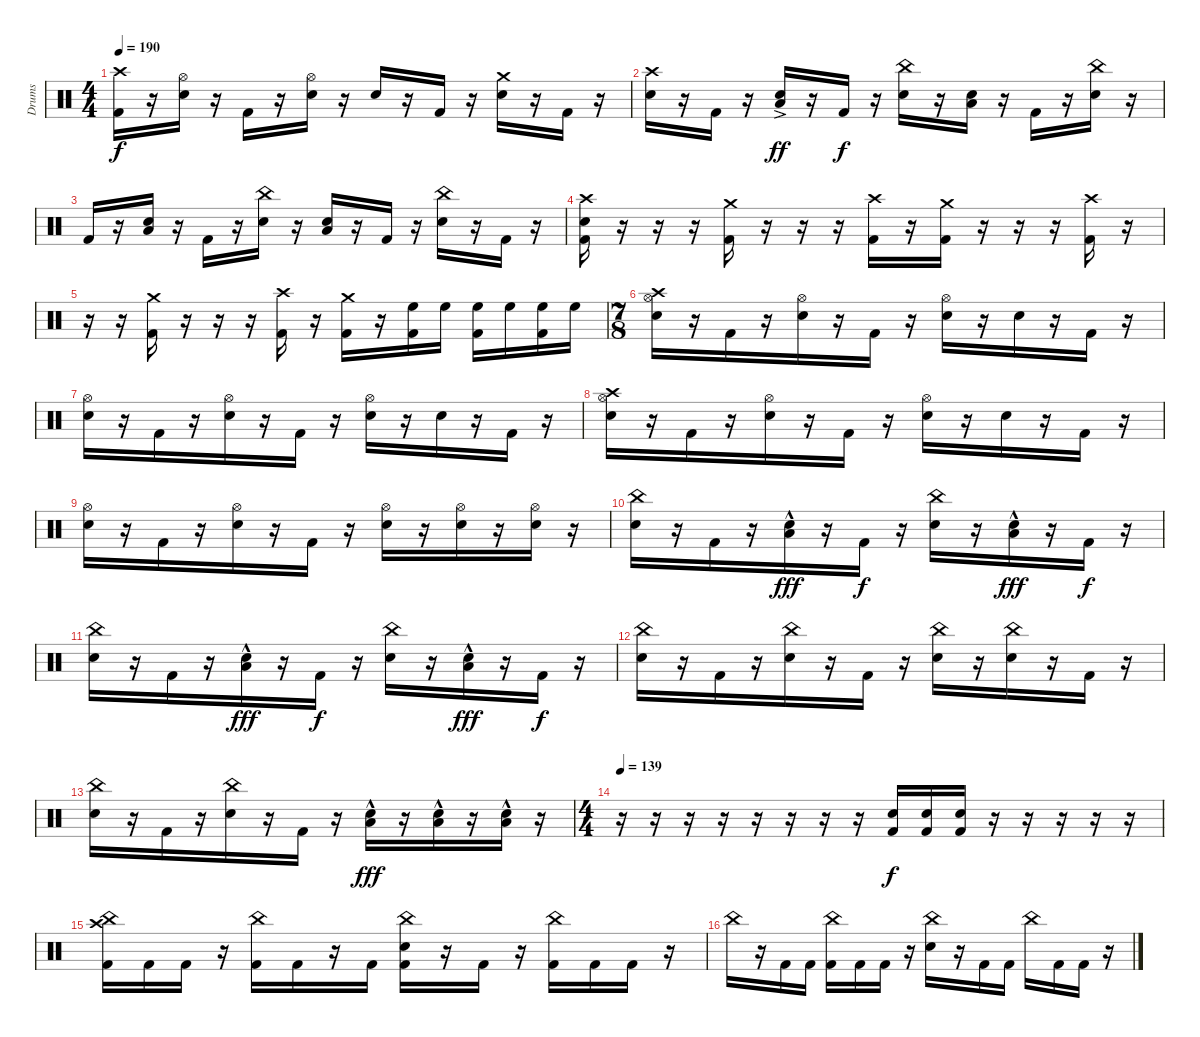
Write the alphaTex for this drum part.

\track ("Drums" "Drums") {instrument percussion}
\staff {score}
\articulation defaults
\ts (4 4)
\tempo 190
\clef neutral
\ks c
("Crash high (hit)" "Kick (hit) 2").16{dy f} r.16 ("Hi-Hat (open)" "Electric Snare (hit)").16 r.16 "Kick (hit) 2".16 r.16 ("Hi-Hat (open)" "Electric Snare (hit)").16 r.16 "Electric Snare (hit)".16 r.16 "Kick (hit) 2".16 r.16 ("Crash medium (hit)" "Electric Snare (hit)").16 r.16 "Kick (hit) 2".16 r.16 |
("Crash high (hit)" "Electric Snare (hit)").16 r.16 "Kick (hit) 2".16 r.16 ("Electric Snare (hit)" "Low Floor Tom (hit)"{ac}).16{dy ff} r.16 "Kick (hit) 2".16{dy f} r.16 ("China (hit)" "Electric Snare (hit)").16 r.16 ("Electric Snare (hit)" "Low Floor Tom (hit)").16 r.16 "Kick (hit) 2".16 r.16 ("China (hit)" "Electric Snare (hit)").16 r.16 |
"Kick (hit) 2".16 r.16 ("Electric Snare (hit)" "Low Floor Tom (hit)").16 r.16 "Kick (hit) 2".16 r.16 ("China (hit)" "Electric Snare (hit)").16 r.16 ("Electric Snare (hit)" "Low Floor Tom (hit)").16 r.16 "Kick (hit) 2".16 r.16 ("China (hit)" "Electric Snare (hit)").16 r.16 "Kick (hit) 2".16 r.16 |
("Crash high (hit)" "Electric Snare (hit)" "Kick (hit) 2").16 r.16 r.16 r.16 ("Crash medium (hit)" "Kick (hit) 2").16 r.16 r.16 r.16 ("Crash high (hit)" "Kick (hit) 2").16 r.16 ("Crash medium (hit)" "Kick (hit) 2").16 r.16 r.16 r.16 ("Crash high (hit)" "Kick (hit) 2").16 r.16 |
r.16 r.16 ("Crash medium (hit)" "Kick (hit) 2").16 r.16 r.16 r.16 ("Crash high (hit)" "Kick (hit) 2").16 r.16 ("Crash medium (hit)" "Kick (hit) 2").16 r.16 ("High Floor Tom (hit)" "Kick (hit) 2").16 "High Floor Tom (hit)".16 ("High Floor Tom (hit)" "Kick (hit) 2").16 "High Floor Tom (hit)".16 ("High Floor Tom (hit)" "Kick (hit) 2").16 "High Floor Tom (hit)".16 |
\ts (7 8)
("Crash high (hit)" "Hi-Hat (open)" "Electric Snare (hit)").16 r.16 "Kick (hit) 2".16 r.16 ("Hi-Hat (open)" "Electric Snare (hit)").16 r.16 "Kick (hit) 2".16 r.16 ("Hi-Hat (open)" "Electric Snare (hit)").16 r.16 "Electric Snare (hit)".16 r.16 "Kick (hit) 2".16 r.16 |
("Hi-Hat (open)" "Electric Snare (hit)").16 r.16 "Kick (hit) 2".16 r.16 ("Hi-Hat (open)" "Electric Snare (hit)").16 r.16 "Kick (hit) 2".16 r.16 ("Hi-Hat (open)" "Electric Snare (hit)").16 r.16 "Electric Snare (hit)".16 r.16 "Kick (hit) 2".16 r.16 |
("Crash high (hit)" "Hi-Hat (open)" "Electric Snare (hit)").16 r.16 "Kick (hit) 2".16 r.16 ("Hi-Hat (open)" "Electric Snare (hit)").16 r.16 "Kick (hit) 2".16 r.16 ("Hi-Hat (open)" "Electric Snare (hit)").16 r.16 "Electric Snare (hit)".16 r.16 "Kick (hit) 2".16 r.16 |
("Hi-Hat (open)" "Electric Snare (hit)").16 r.16 "Kick (hit) 2".16 r.16 ("Hi-Hat (open)" "Electric Snare (hit)").16 r.16 "Kick (hit) 2".16 r.16 ("Hi-Hat (open)" "Electric Snare (hit)").16 r.16 ("Hi-Hat (open)" "Electric Snare (hit)").16 r.16 ("Hi-Hat (open)" "Electric Snare (hit)").16 r.16 |
("China (hit)" "Electric Snare (hit)").16 r.16 "Kick (hit) 2".16 r.16 ("Electric Snare (hit)" "Low Floor Tom (hit)"{hac}).16{dy fff} r.16 "Kick (hit) 2".16{dy f} r.16 ("China (hit)" "Electric Snare (hit)").16 r.16 ("Electric Snare (hit)" "Low Floor Tom (hit)"{hac}).16{dy fff} r.16 "Kick (hit) 2".16{dy f} r.16 |
("China (hit)" "Electric Snare (hit)").16 r.16 "Kick (hit) 2".16 r.16 ("Electric Snare (hit)" "Low Floor Tom (hit)"{hac}).16{dy fff} r.16 "Kick (hit) 2".16{dy f} r.16 ("China (hit)" "Electric Snare (hit)").16 r.16 ("Electric Snare (hit)" "Low Floor Tom (hit)"{hac}).16{dy fff} r.16 "Kick (hit) 2".16{dy f} r.16 |
("China (hit)" "Electric Snare (hit)").16 r.16 "Kick (hit) 2".16 r.16 ("China (hit)" "Electric Snare (hit)").16 r.16 "Kick (hit) 2".16 r.16 ("China (hit)" "Electric Snare (hit)").16 r.16 ("China (hit)" "Electric Snare (hit)").16 r.16 "Kick (hit) 2".16 r.16 |
("China (hit)" "Electric Snare (hit)").16 r.16 "Kick (hit) 2".16 r.16 ("China (hit)" "Electric Snare (hit)").16 r.16 "Kick (hit) 2".16 r.16 ("Electric Snare (hit)" "Low Floor Tom (hit)"{hac}).16{dy fff} r.16 ("Electric Snare (hit)" "Low Floor Tom (hit)"{hac}).16 r.16 ("Electric Snare (hit)" "Low Floor Tom (hit)"{hac}).16 r.16 |
\ts (4 4)
\tempo 139
r.16 r.16 r.16 r.16 r.16 r.16 r.16 r.16 ("Electric Snare (hit)" "Kick (hit) 2").16{dy f} ("Electric Snare (hit)" "Kick (hit) 2").16 ("Electric Snare (hit)" "Kick (hit) 2").16 r.16 r.16 r.16 r.16 r.16 |
("China (hit)" "Crash high (hit)" "Kick (hit) 2").16 "Kick (hit) 2".16 "Kick (hit) 2".16 r.16 ("China (hit)" "Kick (hit) 2").16 "Kick (hit) 2".16 r.16 "Kick (hit) 2".16 ("China (hit)" "Electric Snare (hit)" "Kick (hit) 2").16 r.16 "Kick (hit) 2".16 r.16 ("China (hit)" "Kick (hit) 2").16 "Kick (hit) 2".16 "Kick (hit) 2".16 r.16 |
"China (hit)".16 r.16 "Kick (hit) 2".16 "Kick (hit) 2".16 ("China (hit)" "Kick (hit) 2").16 "Kick (hit) 2".16 "Kick (hit) 2".16 r.16 ("China (hit)" "Electric Snare (hit)").16 r.16 "Kick (hit) 2".16 "Kick (hit) 2".16 "China (hit)".16 "Kick (hit) 2".16 "Kick (hit) 2".16 r.16
